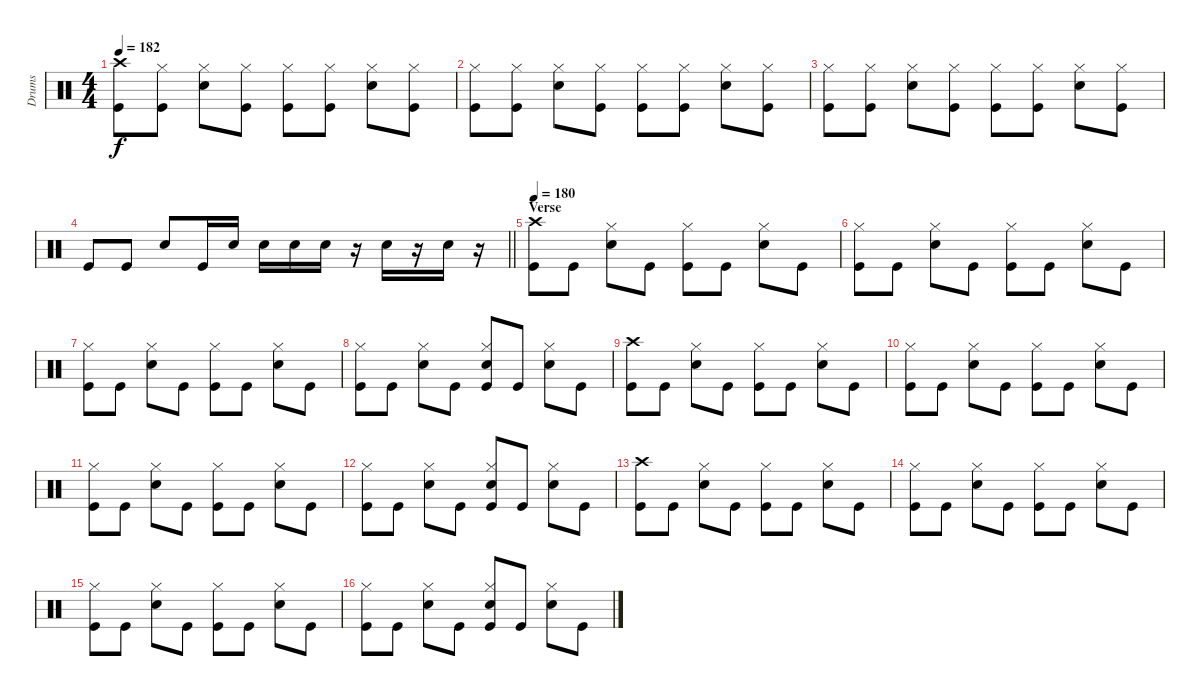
\track ("Drums" "Drums") {instrument percussion}
\staff {score}
\articulation defaults
\ts (4 4)
\tempo 182
\clef neutral
\ks c
("Crash high (hit)" "Kick (hit)").8{dy f} ("Hi-Hat (closed)" "Kick (hit)").8 ("Hi-Hat (closed)" "Snare (hit) 2").8 ("Hi-Hat (closed)" "Kick (hit)").8 ("Hi-Hat (closed)" "Kick (hit)").8 ("Hi-Hat (closed)" "Kick (hit)").8 ("Hi-Hat (closed)" "Snare (hit) 2").8 ("Hi-Hat (closed)" "Kick (hit)").8 |
("Hi-Hat (closed)" "Kick (hit)").8 ("Hi-Hat (closed)" "Kick (hit)").8 ("Hi-Hat (closed)" "Snare (hit) 2").8 ("Hi-Hat (closed)" "Kick (hit)").8 ("Hi-Hat (closed)" "Kick (hit)").8 ("Hi-Hat (closed)" "Kick (hit)").8 ("Hi-Hat (closed)" "Snare (hit) 2").8 ("Hi-Hat (closed)" "Kick (hit)").8 |
("Hi-Hat (closed)" "Kick (hit)").8 ("Hi-Hat (closed)" "Kick (hit)").8 ("Hi-Hat (closed)" "Snare (hit) 2").8 ("Hi-Hat (closed)" "Kick (hit)").8 ("Hi-Hat (closed)" "Kick (hit)").8 ("Hi-Hat (closed)" "Kick (hit)").8 ("Hi-Hat (closed)" "Snare (hit) 2").8 ("Hi-Hat (closed)" "Kick (hit)").8 |
\barLineRight lightlight "Kick (hit)".8 "Kick (hit)".8 "Snare (hit) 2".8 "Kick (hit)".16 "Snare (hit) 2".16 "Snare (hit) 2".16 "Snare (hit) 2".16 "Snare (hit) 2".16
r.16 "Snare (hit) 2".16 r.16 "Snare (hit) 2".16 r.16 |
\section ("" "Verse")
\tempo 180
("Crash high (hit)" "Kick (hit)").8 "Kick (hit)".8 ("Hi-Hat (closed)" "Snare (hit) 2").8 "Kick (hit)".8 ("Hi-Hat (closed)" "Kick (hit)").8 "Kick (hit)".8 ("Hi-Hat (closed)" "Snare (hit) 2").8 "Kick (hit)".8 |
("Hi-Hat (closed)" "Kick (hit)").8 "Kick (hit)".8 ("Hi-Hat (closed)" "Snare (hit) 2").8 "Kick (hit)".8 ("Hi-Hat (closed)" "Kick (hit)").8 "Kick (hit)".8 ("Hi-Hat (closed)" "Snare (hit) 2").8 "Kick (hit)".8 |
("Hi-Hat (closed)" "Kick (hit)").8 "Kick (hit)".8 ("Hi-Hat (closed)" "Snare (hit) 2").8 "Kick (hit)".8 ("Hi-Hat (closed)" "Kick (hit)").8 "Kick (hit)".8 ("Hi-Hat (closed)" "Snare (hit) 2").8 "Kick (hit)".8 |
("Hi-Hat (closed)" "Kick (hit)").8 "Kick (hit)".8 ("Hi-Hat (closed)" "Snare (hit) 2").8 "Kick (hit)".8 ("Hi-Hat (closed)" "Snare (hit) 2" "Kick (hit)").8 "Kick (hit)".8 ("Hi-Hat (closed)" "Snare (hit) 2").8 "Kick (hit)".8 |
("Crash high (hit)" "Kick (hit)").8 "Kick (hit)".8 ("Hi-Hat (closed)" "Snare (hit) 2").8 "Kick (hit)".8 ("Hi-Hat (closed)" "Kick (hit)").8 "Kick (hit)".8 ("Hi-Hat (closed)" "Snare (hit) 2").8 "Kick (hit)".8 |
("Hi-Hat (closed)" "Kick (hit)").8 "Kick (hit)".8 ("Hi-Hat (closed)" "Snare (hit) 2").8 "Kick (hit)".8 ("Hi-Hat (closed)" "Kick (hit)").8 "Kick (hit)".8 ("Hi-Hat (closed)" "Snare (hit) 2").8 "Kick (hit)".8 |
("Hi-Hat (closed)" "Kick (hit)").8 "Kick (hit)".8 ("Hi-Hat (closed)" "Snare (hit) 2").8 "Kick (hit)".8 ("Hi-Hat (closed)" "Kick (hit)").8 "Kick (hit)".8 ("Hi-Hat (closed)" "Snare (hit) 2").8 "Kick (hit)".8 |
("Hi-Hat (closed)" "Kick (hit)").8 "Kick (hit)".8 ("Hi-Hat (closed)" "Snare (hit) 2").8 "Kick (hit)".8 ("Hi-Hat (closed)" "Snare (hit) 2" "Kick (hit)").8 "Kick (hit)".8 ("Hi-Hat (closed)" "Snare (hit) 2").8 "Kick (hit)".8 |
("Crash high (hit)" "Kick (hit)").8 "Kick (hit)".8 ("Hi-Hat (closed)" "Snare (hit) 2").8 "Kick (hit)".8 ("Hi-Hat (closed)" "Kick (hit)").8 "Kick (hit)".8 ("Hi-Hat (closed)" "Snare (hit) 2").8 "Kick (hit)".8 |
("Hi-Hat (closed)" "Kick (hit)").8 "Kick (hit)".8 ("Hi-Hat (closed)" "Snare (hit) 2").8 "Kick (hit)".8 ("Hi-Hat (closed)" "Kick (hit)").8 "Kick (hit)".8 ("Hi-Hat (closed)" "Snare (hit) 2").8 "Kick (hit)".8 |
("Hi-Hat (closed)" "Kick (hit)").8 "Kick (hit)".8 ("Hi-Hat (closed)" "Snare (hit) 2").8 "Kick (hit)".8 ("Hi-Hat (closed)" "Kick (hit)").8 "Kick (hit)".8 ("Hi-Hat (closed)" "Snare (hit) 2").8 "Kick (hit)".8 |
("Hi-Hat (closed)" "Kick (hit)").8 "Kick (hit)".8 ("Hi-Hat (closed)" "Snare (hit) 2").8 "Kick (hit)".8 ("Hi-Hat (closed)" "Snare (hit) 2" "Kick (hit)").8 "Kick (hit)".8 ("Hi-Hat (closed)" "Snare (hit) 2").8 "Kick (hit)".8
